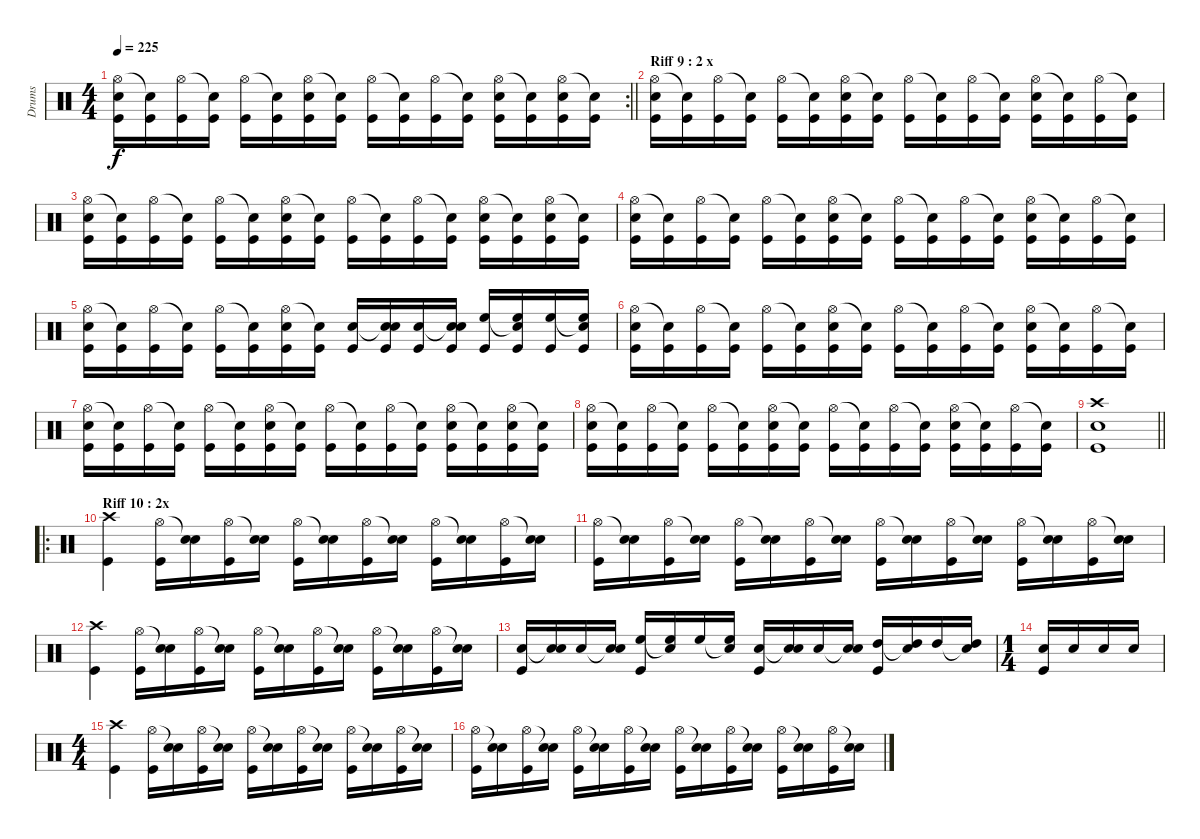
\track ("Drums" "Drums") {instrument percussion}
\staff {score}
\articulation defaults
\rc 2
\ts (4 4)
\tempo 225
\clef neutral
\barLineRight lightlight
\ks c
("Hi-Hat (open)" "Electric Snare (hit)" "Kick (hit)").16{dy f} ("Snare (hit)"{t} "Kick (hit)").16 ("Hi-Hat (open)" "Kick (hit)").16 ("Snare (hit)"{t} "Kick (hit)").16 ("Hi-Hat (open)" "Kick (hit)").16 ("Snare (hit)"{t} "Kick (hit)").16 ("Hi-Hat (open)" "Electric Snare (hit)" "Kick (hit)").16 ("Snare (hit)"{t} "Kick (hit)").16 ("Hi-Hat (open)" "Kick (hit)").16 ("Snare (hit)"{t} "Kick (hit)").16 ("Hi-Hat (open)" "Kick (hit)").16 ("Snare (hit)"{t} "Kick (hit)").16 ("Hi-Hat (open)" "Electric Snare (hit)" "Kick (hit)").16 ("Snare (hit)"{t} "Kick (hit)").16 ("Hi-Hat (open)" "Electric Snare (hit)" "Kick (hit)").16 ("Snare (hit)"{t} "Kick (hit)").16 |
\section ("" "Riff 9 : 2 x")
("Hi-Hat (open)" "Electric Snare (hit)" "Kick (hit)").16 ("Snare (hit)"{t} "Kick (hit)").16 ("Hi-Hat (open)" "Kick (hit)").16 ("Snare (hit)"{t} "Kick (hit)").16 ("Hi-Hat (open)" "Kick (hit)").16 ("Snare (hit)"{t} "Kick (hit)").16 ("Hi-Hat (open)" "Electric Snare (hit)" "Kick (hit)").16 ("Snare (hit)"{t} "Kick (hit)").16 ("Hi-Hat (open)" "Kick (hit)").16 ("Snare (hit)"{t} "Kick (hit)").16 ("Hi-Hat (open)" "Kick (hit)").16 ("Snare (hit)"{t} "Kick (hit)").16 ("Hi-Hat (open)" "Electric Snare (hit)" "Kick (hit)").16 ("Snare (hit)"{t} "Kick (hit)").16 ("Hi-Hat (open)" "Kick (hit)").16 ("Snare (hit)"{t} "Kick (hit)").16 |
("Hi-Hat (open)" "Electric Snare (hit)" "Kick (hit)").16 ("Snare (hit)"{t} "Kick (hit)").16 ("Hi-Hat (open)" "Kick (hit)").16 ("Snare (hit)"{t} "Kick (hit)").16 ("Hi-Hat (open)" "Kick (hit)").16 ("Snare (hit)"{t} "Kick (hit)").16 ("Hi-Hat (open)" "Electric Snare (hit)" "Kick (hit)").16 ("Snare (hit)"{t} "Kick (hit)").16 ("Hi-Hat (open)" "Kick (hit)").16 ("Snare (hit)"{t} "Kick (hit)").16 ("Hi-Hat (open)" "Kick (hit)").16 ("Snare (hit)"{t} "Kick (hit)").16 ("Hi-Hat (open)" "Electric Snare (hit)" "Kick (hit)").16 ("Snare (hit)"{t} "Kick (hit)").16 ("Hi-Hat (open)" "Electric Snare (hit)" "Kick (hit)").16 ("Snare (hit)"{t} "Kick (hit)").16 |
("Hi-Hat (open)" "Electric Snare (hit)" "Kick (hit)").16 ("Snare (hit)"{t} "Kick (hit)").16 ("Hi-Hat (open)" "Kick (hit)").16 ("Snare (hit)"{t} "Kick (hit)").16 ("Hi-Hat (open)" "Kick (hit)").16 ("Snare (hit)"{t} "Kick (hit)").16 ("Hi-Hat (open)" "Electric Snare (hit)" "Kick (hit)").16 ("Snare (hit)"{t} "Kick (hit)").16 ("Hi-Hat (open)" "Kick (hit)").16 ("Snare (hit)"{t} "Kick (hit)").16 ("Hi-Hat (open)" "Kick (hit)").16 ("Snare (hit)"{t} "Kick (hit)").16 ("Hi-Hat (open)" "Electric Snare (hit)" "Kick (hit)").16 ("Snare (hit)"{t} "Kick (hit)").16 ("Hi-Hat (open)" "Kick (hit)").16 ("Snare (hit)"{t} "Kick (hit)").16 |
("Hi-Hat (open)" "Electric Snare (hit)" "Kick (hit)").16 ("Snare (hit)"{t} "Kick (hit)").16 ("Hi-Hat (open)" "Kick (hit)").16 ("Snare (hit)"{t} "Kick (hit)").16 ("Hi-Hat (open)" "Kick (hit)").16 ("Snare (hit)"{t} "Kick (hit)").16 ("Hi-Hat (open)" "Electric Snare (hit)" "Kick (hit)").16 ("Snare (hit)"{t} "Kick (hit)").16 ("Electric Snare (hit)" "Kick (hit)").16 ("Snare (hit)"{t} "Electric Snare (hit)" "Kick (hit)").16 ("Electric Snare (hit)" "Kick (hit)").16 ("Snare (hit)"{t} "Electric Snare (hit)" "Kick (hit)").16 ("High Floor Tom (hit)" "Kick (hit)").16 ("Snare (hit)"{t} "High Floor Tom (hit)" "Kick (hit)").16 ("High Floor Tom (hit)" "Kick (hit)").16 ("Snare (hit)"{t} "High Floor Tom (hit)" "Kick (hit)").16 |
("Hi-Hat (open)" "Electric Snare (hit)" "Kick (hit)").16 ("Snare (hit)"{t} "Kick (hit)").16 ("Hi-Hat (open)" "Kick (hit)").16 ("Snare (hit)"{t} "Kick (hit)").16 ("Hi-Hat (open)" "Kick (hit)").16 ("Snare (hit)"{t} "Kick (hit)").16 ("Hi-Hat (open)" "Electric Snare (hit)" "Kick (hit)").16 ("Snare (hit)"{t} "Kick (hit)").16 ("Hi-Hat (open)" "Kick (hit)").16 ("Snare (hit)"{t} "Kick (hit)").16 ("Hi-Hat (open)" "Kick (hit)").16 ("Snare (hit)"{t} "Kick (hit)").16 ("Hi-Hat (open)" "Electric Snare (hit)" "Kick (hit)").16 ("Snare (hit)"{t} "Kick (hit)").16 ("Hi-Hat (open)" "Kick (hit)").16 ("Snare (hit)"{t} "Kick (hit)").16 |
("Hi-Hat (open)" "Electric Snare (hit)" "Kick (hit)").16 ("Snare (hit)"{t} "Kick (hit)").16 ("Hi-Hat (open)" "Kick (hit)").16 ("Snare (hit)"{t} "Kick (hit)").16 ("Hi-Hat (open)" "Kick (hit)").16 ("Snare (hit)"{t} "Kick (hit)").16 ("Hi-Hat (open)" "Electric Snare (hit)" "Kick (hit)").16 ("Snare (hit)"{t} "Kick (hit)").16 ("Hi-Hat (open)" "Kick (hit)").16 ("Snare (hit)"{t} "Kick (hit)").16 ("Hi-Hat (open)" "Kick (hit)").16 ("Snare (hit)"{t} "Kick (hit)").16 ("Hi-Hat (open)" "Electric Snare (hit)" "Kick (hit)").16 ("Snare (hit)"{t} "Kick (hit)").16 ("Hi-Hat (open)" "Electric Snare (hit)" "Kick (hit)").16 ("Snare (hit)"{t} "Kick (hit)").16 |
("Hi-Hat (open)" "Electric Snare (hit)" "Kick (hit)").16 ("Snare (hit)"{t} "Kick (hit)").16 ("Hi-Hat (open)" "Kick (hit)").16 ("Snare (hit)"{t} "Kick (hit)").16 ("Hi-Hat (open)" "Kick (hit)").16 ("Snare (hit)"{t} "Kick (hit)").16 ("Hi-Hat (open)" "Electric Snare (hit)" "Kick (hit)").16 ("Snare (hit)"{t} "Kick (hit)").16 ("Hi-Hat (open)" "Kick (hit)").16 ("Snare (hit)"{t} "Kick (hit)").16 ("Hi-Hat (open)" "Kick (hit)").16 ("Snare (hit)"{t} "Kick (hit)").16 ("Hi-Hat (open)" "Electric Snare (hit)" "Kick (hit)").16 ("Snare (hit)"{t} "Kick (hit)").16 ("Hi-Hat (open)" "Kick (hit)").16 ("Snare (hit)"{t} "Kick (hit)").16 |
\barLineRight lightlight
("Crash high (hit)" "Electric Snare (hit)" "Kick (hit)").1 |
\ro
\section ("" "Riff 10 : 2x")
("Crash high (hit)" "Kick (hit)").4 ("Hi-Hat (open)" "Kick (hit)").16 ("Snare (hit)"{t} "Electric Snare (hit)").16 ("Hi-Hat (open)" "Kick (hit)").16 ("Snare (hit)"{t} "Electric Snare (hit)").16 ("Hi-Hat (open)" "Kick (hit)").16 ("Snare (hit)"{t} "Electric Snare (hit)").16 ("Hi-Hat (open)" "Kick (hit)").16 ("Snare (hit)"{t} "Electric Snare (hit)").16 ("Hi-Hat (open)" "Kick (hit)").16 ("Snare (hit)"{t} "Electric Snare (hit)").16 ("Hi-Hat (open)" "Kick (hit)").16 ("Snare (hit)"{t} "Electric Snare (hit)").16 |
("Hi-Hat (open)" "Kick (hit)").16 ("Snare (hit)"{t} "Electric Snare (hit)").16 ("Hi-Hat (open)" "Kick (hit)").16 ("Snare (hit)"{t} "Electric Snare (hit)").16 ("Hi-Hat (open)" "Kick (hit)").16 ("Snare (hit)"{t} "Electric Snare (hit)").16 ("Hi-Hat (open)" "Kick (hit)").16 ("Snare (hit)"{t} "Electric Snare (hit)").16 ("Hi-Hat (open)" "Kick (hit)").16 ("Snare (hit)"{t} "Electric Snare (hit)").16 ("Hi-Hat (open)" "Kick (hit)").16 ("Snare (hit)"{t} "Electric Snare (hit)").16 ("Hi-Hat (open)" "Kick (hit)").16 ("Snare (hit)"{t} "Electric Snare (hit)").16 ("Hi-Hat (open)" "Kick (hit)").16 ("Snare (hit)"{t} "Electric Snare (hit)").16 |
("Crash high (hit)" "Kick (hit)").4 ("Hi-Hat (open)" "Kick (hit)").16 ("Snare (hit)"{t} "Electric Snare (hit)").16 ("Hi-Hat (open)" "Kick (hit)").16 ("Snare (hit)"{t} "Electric Snare (hit)").16 ("Hi-Hat (open)" "Kick (hit)").16 ("Snare (hit)"{t} "Electric Snare (hit)").16 ("Hi-Hat (open)" "Kick (hit)").16 ("Snare (hit)"{t} "Electric Snare (hit)").16 ("Hi-Hat (open)" "Kick (hit)").16 ("Snare (hit)"{t} "Electric Snare (hit)").16 ("Hi-Hat (open)" "Kick (hit)").16 ("Snare (hit)"{t} "Electric Snare (hit)").16 |
("Electric Snare (hit)" "Kick (hit)").16 ("Snare (hit)"{t} "Electric Snare (hit)").16 "Electric Snare (hit)".16 ("Snare (hit)"{t} "Electric Snare (hit)").16 ("High Floor Tom (hit)" "Kick (hit)").16 ("Snare (hit)"{t} "High Floor Tom (hit)").16 "High Floor Tom (hit)".16 ("Snare (hit)"{t} "High Floor Tom (hit)").16 ("Electric Snare (hit)" "Kick (hit)").16 ("Snare (hit)"{t} "Electric Snare (hit)").16 "Electric Snare (hit)".16 ("Snare (hit)"{t} "Electric Snare (hit)").16 ("High Tom (hit)" "Kick (hit)").16 ("Snare (hit)"{t} "High Tom (hit)").16 "High Tom (hit)".16 ("Snare (hit)"{t} "High Tom (hit)").16 |
\ts (1 4)
("Electric Snare (hit)" "Kick (hit)").16 "Electric Snare (hit)".16 "Electric Snare (hit)".16 "Electric Snare (hit)".16 |
\ts (4 4)
("Crash high (hit)" "Kick (hit)").4 ("Hi-Hat (open)" "Kick (hit)").16 ("Snare (hit)"{t} "Electric Snare (hit)").16 ("Hi-Hat (open)" "Kick (hit)").16 ("Snare (hit)"{t} "Electric Snare (hit)").16 ("Hi-Hat (open)" "Kick (hit)").16 ("Snare (hit)"{t} "Electric Snare (hit)").16 ("Hi-Hat (open)" "Kick (hit)").16 ("Snare (hit)"{t} "Electric Snare (hit)").16 ("Hi-Hat (open)" "Kick (hit)").16 ("Snare (hit)"{t} "Electric Snare (hit)").16 ("Hi-Hat (open)" "Kick (hit)").16 ("Snare (hit)"{t} "Electric Snare (hit)").16 |
("Hi-Hat (open)" "Kick (hit)").16 ("Snare (hit)"{t} "Electric Snare (hit)").16 ("Hi-Hat (open)" "Kick (hit)").16 ("Snare (hit)"{t} "Electric Snare (hit)").16 ("Hi-Hat (open)" "Kick (hit)").16 ("Snare (hit)"{t} "Electric Snare (hit)").16 ("Hi-Hat (open)" "Kick (hit)").16 ("Snare (hit)"{t} "Electric Snare (hit)").16 ("Hi-Hat (open)" "Kick (hit)").16 ("Snare (hit)"{t} "Electric Snare (hit)").16 ("Hi-Hat (open)" "Kick (hit)").16 ("Snare (hit)"{t} "Electric Snare (hit)").16 ("Hi-Hat (open)" "Kick (hit)").16 ("Snare (hit)"{t} "Electric Snare (hit)").16 ("Hi-Hat (open)" "Kick (hit)").16 ("Snare (hit)"{t} "Electric Snare (hit)").16
